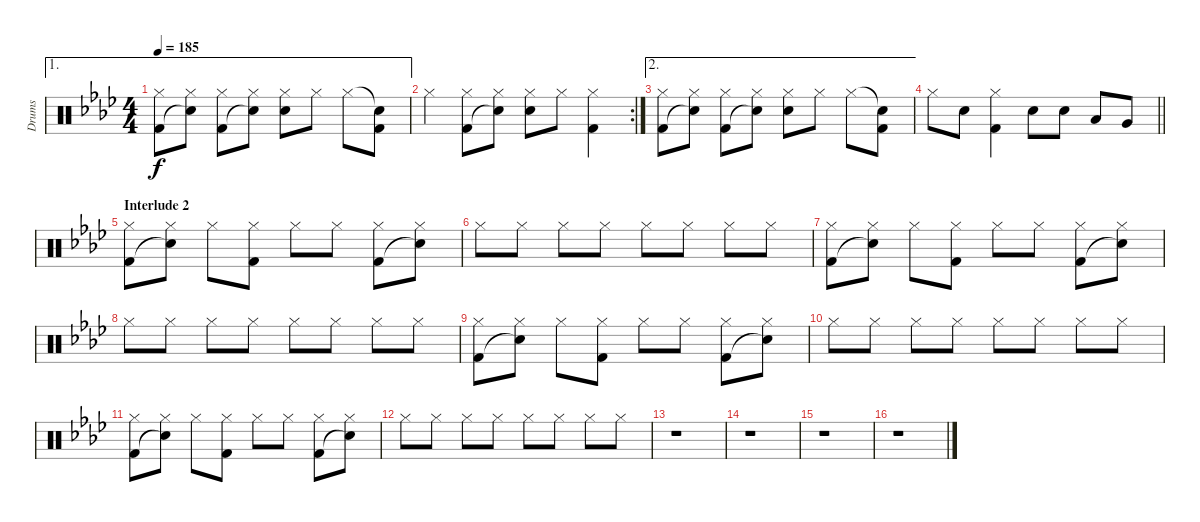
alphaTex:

\track ("Drums" "Drums") {instrument percussion}
\staff {score}
\articulation defaults
\ae 1
\ts (4 4)
\tempo 185
\clef neutral
\ks fminor
("Hi-Hat (closed)" "Kick (hit) 2").8{dy f} ("Hi-Hat (closed)" "Snare (hit)"{t}).8 ("Hi-Hat (closed)" "Kick (hit) 2").8 ("Hi-Hat (closed)" "Snare (hit)"{t}).8 ("Hi-Hat (closed)" "Electric Snare (hit)").8 "Hi-Hat (closed)".8 "Hi-Hat (closed)".8 ("Snare (hit)"{t} "Kick (hit) 2").8 |
\rc 2 "Hi-Hat (closed)".4
("Hi-Hat (closed)" "Kick (hit) 2").8 ("Hi-Hat (closed)" "Snare (hit)"{t}).8 ("Hi-Hat (closed)" "Electric Snare (hit)").8 "Hi-Hat (closed)".8 ("Hi-Hat (closed)" "Kick (hit) 2").4 |
\ae 2
("Hi-Hat (closed)" "Kick (hit) 2").8 ("Hi-Hat (closed)" "Snare (hit)"{t}).8 ("Hi-Hat (closed)" "Kick (hit) 2").8 ("Hi-Hat (closed)" "Snare (hit)"{t}).8 ("Hi-Hat (closed)" "Electric Snare (hit)").8 "Hi-Hat (closed)".8 "Hi-Hat (closed)".8 ("Snare (hit)"{t} "Kick (hit) 2").8 |
\barLineRight lightlight "Hi-Hat (closed)".8 "Electric Snare (hit)".8
("Hi-Hat (closed)" "Kick (hit) 2").4 "Electric Snare (hit)".8 "Electric Snare (hit)".8 "Low Tom (hit)".8 "Very Low Tom (hit)".8 |
\section ("" "Interlude 2")
("Hi-Hat (closed)" "Kick (hit) 2").8 ("Hi-Hat (closed)" "Snare (hit)"{t}).8 "Hi-Hat (closed)".8 ("Hi-Hat (closed)" "Kick (hit) 2").8 "Hi-Hat (closed)".8 "Hi-Hat (closed)".8 ("Hi-Hat (closed)" "Kick (hit) 2").8 ("Hi-Hat (closed)" "Snare (hit)"{t}).8 |
"Hi-Hat (closed)".8 "Hi-Hat (closed)".8 "Hi-Hat (closed)".8 "Hi-Hat (closed)".8 "Hi-Hat (closed)".8 "Hi-Hat (closed)".8 "Hi-Hat (closed)".8 "Hi-Hat (closed)".8 |
("Hi-Hat (closed)" "Kick (hit) 2").8 ("Hi-Hat (closed)" "Snare (hit)"{t}).8 "Hi-Hat (closed)".8 ("Hi-Hat (closed)" "Kick (hit) 2").8 "Hi-Hat (closed)".8 "Hi-Hat (closed)".8 ("Hi-Hat (closed)" "Kick (hit) 2").8 ("Hi-Hat (closed)" "Snare (hit)"{t}).8 |
"Hi-Hat (closed)".8 "Hi-Hat (closed)".8 "Hi-Hat (closed)".8 "Hi-Hat (closed)".8 "Hi-Hat (closed)".8 "Hi-Hat (closed)".8 "Hi-Hat (closed)".8 "Hi-Hat (closed)".8 |
("Hi-Hat (closed)" "Kick (hit) 2").8 ("Hi-Hat (closed)" "Snare (hit)"{t}).8 "Hi-Hat (closed)".8 ("Hi-Hat (closed)" "Kick (hit) 2").8 "Hi-Hat (closed)".8 "Hi-Hat (closed)".8 ("Hi-Hat (closed)" "Kick (hit) 2").8 ("Hi-Hat (closed)" "Snare (hit)"{t}).8 |
"Hi-Hat (closed)".8 "Hi-Hat (closed)".8 "Hi-Hat (closed)".8 "Hi-Hat (closed)".8 "Hi-Hat (closed)".8 "Hi-Hat (closed)".8 "Hi-Hat (closed)".8 "Hi-Hat (closed)".8 |
("Hi-Hat (closed)" "Kick (hit) 2").8 ("Hi-Hat (closed)" "Snare (hit)"{t}).8 "Hi-Hat (closed)".8 ("Hi-Hat (closed)" "Kick (hit) 2").8 "Hi-Hat (closed)".8 "Hi-Hat (closed)".8 ("Hi-Hat (closed)" "Kick (hit) 2").8 ("Hi-Hat (closed)" "Snare (hit)"{t}).8 |
"Hi-Hat (closed)".8 "Hi-Hat (closed)".8 "Hi-Hat (closed)".8 "Hi-Hat (closed)".8 "Hi-Hat (closed)".8 "Hi-Hat (closed)".8 "Hi-Hat (closed)".8 "Hi-Hat (closed)".8 |
r.1 |
r.1 |
r.1 |
r.1
